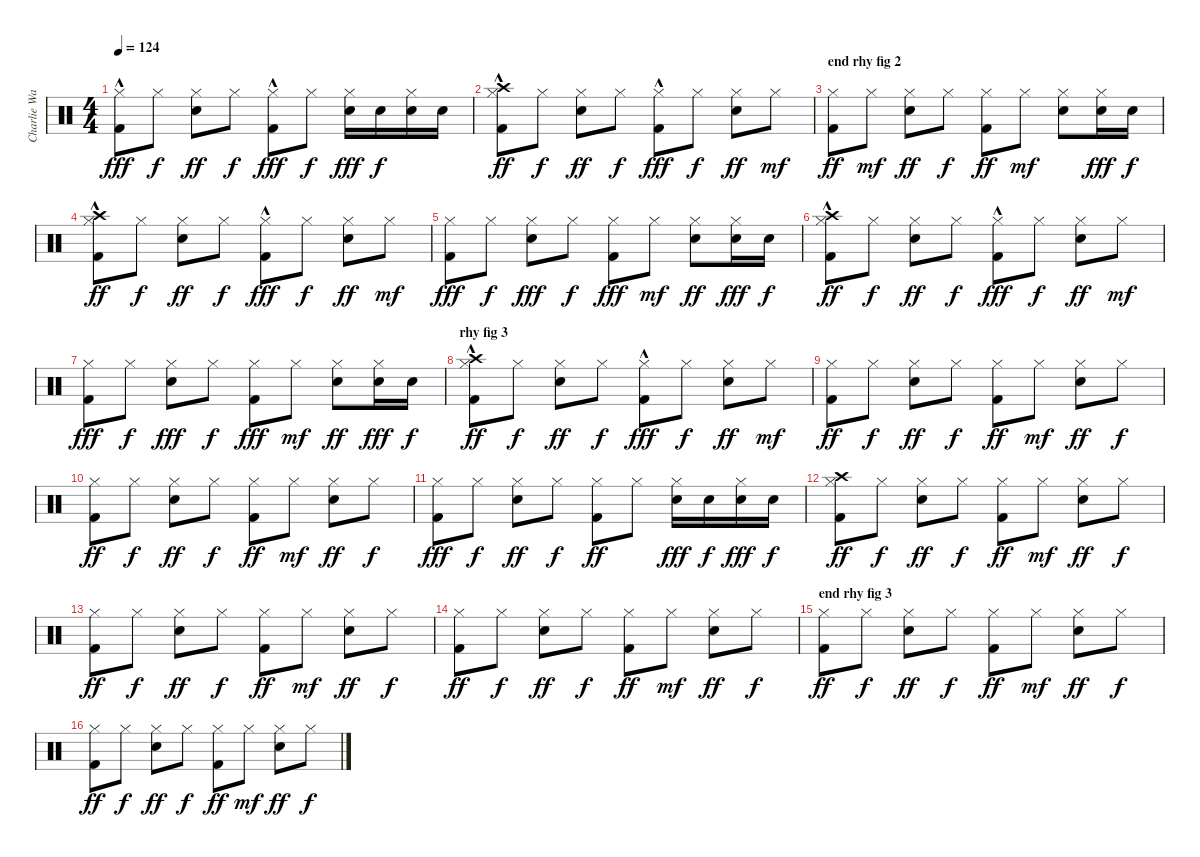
\track ("Charlie Watts" "Charlie Wa") {instrument percussion}
\staff {score}
\articulation defaults
\ts (4 4)
\tempo 124
\clef neutral
\ks c
("Kick (hit) 2"{hac} "Hi-Hat (closed)").8{dy fff} "Hi-Hat (closed)".8{dy f} ("Snare (hit) 2" "Hi-Hat (closed)").8{dy ff} "Hi-Hat (closed)".8{dy f} ("Kick (hit) 2"{hac} "Hi-Hat (closed)").8{dy fff} "Hi-Hat (closed)".8{dy f} ("Hi-Hat (closed)" "Snare (hit) 2").16{dy fff} "Snare (hit) 2".16{dy f} ("Hi-Hat (closed)" "Snare (hit) 2").16 "Snare (hit) 2".16 |
("Kick (hit) 2"{hac} "Hi-Hat (closed)" "Crash high (hit)").8{dy ff} "Hi-Hat (closed)".8{dy f} ("Snare (hit) 2" "Hi-Hat (closed)").8{dy ff} "Hi-Hat (closed)".8{dy f} ("Kick (hit) 2"{hac} "Hi-Hat (closed)").8{dy fff} "Hi-Hat (closed)".8{dy f} ("Snare (hit) 2" "Hi-Hat (closed)").8{dy ff} "Hi-Hat (closed)".8{dy mf} |
\section ("" "end rhy fig 2")
("Kick (hit) 2" "Hi-Hat (closed)").8{dy ff} "Hi-Hat (closed)".8{dy mf} ("Snare (hit) 2" "Hi-Hat (closed)").8{dy ff} "Hi-Hat (closed)".8{dy f} ("Kick (hit) 2" "Hi-Hat (closed)").8{dy ff} "Hi-Hat (closed)".8{dy mf} ("Hi-Hat (closed)" "Snare (hit) 2").8 ("Hi-Hat (closed)" "Snare (hit) 2").16{dy fff} "Snare (hit) 2".16{dy f} |
("Kick (hit) 2"{hac} "Hi-Hat (closed)" "Crash high (hit)").8{dy ff} "Hi-Hat (closed)".8{dy f} ("Snare (hit) 2" "Hi-Hat (closed)").8{dy ff} "Hi-Hat (closed)".8{dy f} ("Kick (hit) 2"{hac} "Hi-Hat (closed)").8{dy fff} "Hi-Hat (closed)".8{dy f} ("Snare (hit) 2" "Hi-Hat (closed)").8{dy ff} "Hi-Hat (closed)".8{dy mf} |
("Kick (hit) 2" "Hi-Hat (closed)").8{dy fff} "Hi-Hat (closed)".8{dy f} ("Snare (hit) 2" "Hi-Hat (closed)").8{dy fff} "Hi-Hat (closed)".8{dy f} ("Kick (hit) 2" "Hi-Hat (closed)").8{dy fff} "Hi-Hat (closed)".8{dy mf} ("Hi-Hat (closed)" "Snare (hit) 2").8{dy ff} ("Hi-Hat (closed)" "Snare (hit) 2").16{dy fff} "Snare (hit) 2".16{dy f} |
("Kick (hit) 2"{hac} "Hi-Hat (closed)" "Crash high (hit)").8{dy ff} "Hi-Hat (closed)".8{dy f} ("Snare (hit) 2" "Hi-Hat (closed)").8{dy ff} "Hi-Hat (closed)".8{dy f} ("Kick (hit) 2"{hac} "Hi-Hat (closed)").8{dy fff} "Hi-Hat (closed)".8{dy f} ("Snare (hit) 2" "Hi-Hat (closed)").8{dy ff} "Hi-Hat (closed)".8{dy mf} |
("Kick (hit) 2" "Hi-Hat (closed)").8{dy fff} "Hi-Hat (closed)".8{dy f} ("Snare (hit) 2" "Hi-Hat (closed)").8{dy fff} "Hi-Hat (closed)".8{dy f} ("Kick (hit) 2" "Hi-Hat (closed)").8{dy fff} "Hi-Hat (closed)".8{dy mf} ("Hi-Hat (closed)" "Snare (hit) 2").8{dy ff} ("Hi-Hat (closed)" "Snare (hit) 2").16{dy fff} "Snare (hit) 2".16{dy f} |
\section ("" "rhy fig 3")
("Kick (hit) 2"{hac} "Hi-Hat (closed)" "Crash high (hit)").8{dy ff} "Hi-Hat (closed)".8{dy f} ("Snare (hit) 2" "Hi-Hat (closed)").8{dy ff} "Hi-Hat (closed)".8{dy f} ("Kick (hit) 2"{hac} "Hi-Hat (closed)").8{dy fff} "Hi-Hat (closed)".8{dy f} ("Snare (hit) 2" "Hi-Hat (closed)").8{dy ff} "Hi-Hat (closed)".8{dy mf} |
("Kick (hit) 2" "Hi-Hat (closed)").8{dy ff} "Hi-Hat (closed)".8{dy f} ("Snare (hit) 2" "Hi-Hat (closed)").8{dy ff} "Hi-Hat (closed)".8{dy f} ("Kick (hit) 2" "Hi-Hat (closed)").8{dy ff} "Hi-Hat (closed)".8{dy mf} ("Snare (hit) 2" "Hi-Hat (closed)").8{dy ff} "Hi-Hat (closed)".8{dy f} |
("Kick (hit) 2" "Hi-Hat (closed)").8{dy ff} "Hi-Hat (closed)".8{dy f} ("Snare (hit) 2" "Hi-Hat (closed)").8{dy ff} "Hi-Hat (closed)".8{dy f} ("Kick (hit) 2" "Hi-Hat (closed)").8{dy ff} "Hi-Hat (closed)".8{dy mf} ("Snare (hit) 2" "Hi-Hat (closed)").8{dy ff} "Hi-Hat (closed)".8{dy f} |
("Kick (hit) 2" "Hi-Hat (closed)").8{dy fff} "Hi-Hat (closed)".8{dy f} ("Snare (hit) 2" "Hi-Hat (closed)").8{dy ff} "Hi-Hat (closed)".8{dy f} ("Kick (hit) 2" "Hi-Hat (closed)").8{dy ff} "Hi-Hat (closed)".8 ("Hi-Hat (closed)" "Snare (hit) 2").16{dy fff} "Snare (hit) 2".16{dy f} ("Hi-Hat (closed)" "Snare (hit) 2").16{dy fff} "Snare (hit) 2".16{dy f} |
("Kick (hit) 2" "Hi-Hat (closed)" "Crash high (hit)").8{dy ff} "Hi-Hat (closed)".8{dy f} ("Snare (hit) 2" "Hi-Hat (closed)").8{dy ff} "Hi-Hat (closed)".8{dy f} ("Kick (hit) 2" "Hi-Hat (closed)").8{dy ff} "Hi-Hat (closed)".8{dy mf} ("Snare (hit) 2" "Hi-Hat (closed)").8{dy ff} "Hi-Hat (closed)".8{dy f} |
("Kick (hit) 2" "Hi-Hat (closed)").8{dy ff} "Hi-Hat (closed)".8{dy f} ("Snare (hit) 2" "Hi-Hat (closed)").8{dy ff} "Hi-Hat (closed)".8{dy f} ("Kick (hit) 2" "Hi-Hat (closed)").8{dy ff} "Hi-Hat (closed)".8{dy mf} ("Snare (hit) 2" "Hi-Hat (closed)").8{dy ff} "Hi-Hat (closed)".8{dy f} |
("Kick (hit) 2" "Hi-Hat (closed)").8{dy ff} "Hi-Hat (closed)".8{dy f} ("Snare (hit) 2" "Hi-Hat (closed)").8{dy ff} "Hi-Hat (closed)".8{dy f} ("Kick (hit) 2" "Hi-Hat (closed)").8{dy ff} "Hi-Hat (closed)".8{dy mf} ("Snare (hit) 2" "Hi-Hat (closed)").8{dy ff} "Hi-Hat (closed)".8{dy f} |
\section ("" "end rhy fig 3")
("Kick (hit) 2" "Hi-Hat (closed)").8{dy ff} "Hi-Hat (closed)".8{dy f} ("Snare (hit) 2" "Hi-Hat (closed)").8{dy ff} "Hi-Hat (closed)".8{dy f} ("Kick (hit) 2" "Hi-Hat (closed)").8{dy ff} "Hi-Hat (closed)".8{dy mf} ("Snare (hit) 2" "Hi-Hat (closed)").8{dy ff} "Hi-Hat (closed)".8{dy f} |
("Kick (hit) 2" "Hi-Hat (closed)").8{dy ff} "Hi-Hat (closed)".8{dy f} ("Snare (hit) 2" "Hi-Hat (closed)").8{dy ff} "Hi-Hat (closed)".8{dy f} ("Kick (hit) 2" "Hi-Hat (closed)").8{dy ff} "Hi-Hat (closed)".8{dy mf} ("Snare (hit) 2" "Hi-Hat (closed)").8{dy ff} "Hi-Hat (closed)".8{dy f}
